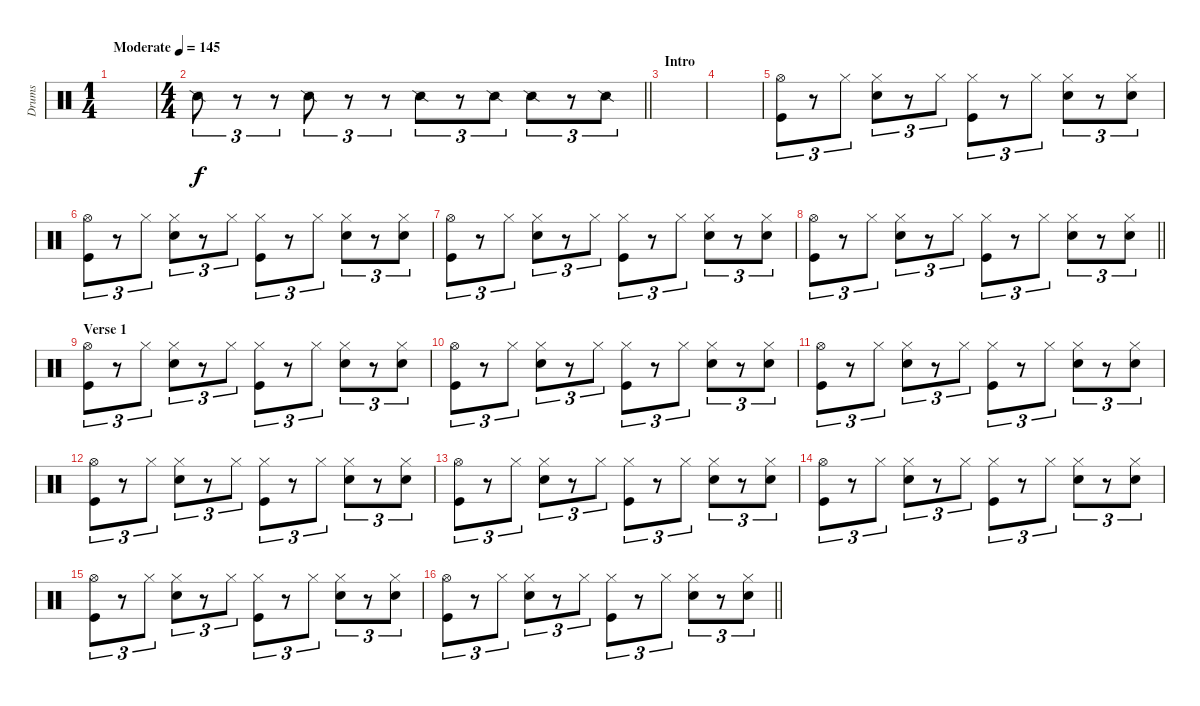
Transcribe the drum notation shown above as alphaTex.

\track ("Drums" "Drums") {instrument percussion}
\staff {score}
\articulation defaults
\ts (1 4)
\tempo (145 "Moderate")
\clef neutral
\ks c
|
\ts (4 4)
\barLineRight lightlight "Snare (side stick) 2".8{tu (3 2)}
r.8{tu (3 2)} r.8{tu (3 2)} "Snare (side stick) 2".8{tu (3 2)} r.8{tu (3 2)} r.8{tu (3 2)} "Snare (side stick) 2".8{tu (3 2)} r.8{tu (3 2)} "Snare (side stick) 2".8{tu (3 2)} "Snare (side stick) 2".8{tu (3 2)} r.8{tu (3 2)} "Snare (side stick) 2".8{tu (3 2)} |
\section ("" "Intro")
|
|
("Hi-Hat (open)" "Kick (hit)").8{tu (3 2)} r.8{tu (3 2)} "Hi-Hat (closed)".8{tu (3 2)} ("Hi-Hat (closed)" "Snare (hit) 2").8{tu (3 2)} r.8{tu (3 2)} "Hi-Hat (closed)".8{tu (3 2)} ("Hi-Hat (closed)" "Kick (hit)").8{tu (3 2)} r.8{tu (3 2)} "Hi-Hat (closed)".8{tu (3 2)} ("Hi-Hat (closed)" "Snare (hit) 2").8{tu (3 2)} r.8{tu (3 2)} ("Hi-Hat (closed)" "Snare (hit) 2").8{tu (3 2)} |
("Hi-Hat (open)" "Kick (hit)").8{tu (3 2)} r.8{tu (3 2)} "Hi-Hat (closed)".8{tu (3 2)} ("Hi-Hat (closed)" "Snare (hit) 2").8{tu (3 2)} r.8{tu (3 2)} "Hi-Hat (closed)".8{tu (3 2)} ("Hi-Hat (closed)" "Kick (hit)").8{tu (3 2)} r.8{tu (3 2)} "Hi-Hat (closed)".8{tu (3 2)} ("Hi-Hat (closed)" "Snare (hit) 2").8{tu (3 2)} r.8{tu (3 2)} ("Hi-Hat (closed)" "Snare (hit) 2").8{tu (3 2)} |
("Hi-Hat (open)" "Kick (hit)").8{tu (3 2)} r.8{tu (3 2)} "Hi-Hat (closed)".8{tu (3 2)} ("Hi-Hat (closed)" "Snare (hit) 2").8{tu (3 2)} r.8{tu (3 2)} "Hi-Hat (closed)".8{tu (3 2)} ("Hi-Hat (closed)" "Kick (hit)").8{tu (3 2)} r.8{tu (3 2)} "Hi-Hat (closed)".8{tu (3 2)} ("Hi-Hat (closed)" "Snare (hit) 2").8{tu (3 2)} r.8{tu (3 2)} ("Hi-Hat (closed)" "Snare (hit) 2").8{tu (3 2)} |
\barLineRight lightlight
("Hi-Hat (open)" "Kick (hit)").8{tu (3 2)} r.8{tu (3 2)} "Hi-Hat (closed)".8{tu (3 2)} ("Hi-Hat (closed)" "Snare (hit) 2").8{tu (3 2)} r.8{tu (3 2)} "Hi-Hat (closed)".8{tu (3 2)} ("Hi-Hat (closed)" "Kick (hit)").8{tu (3 2)} r.8{tu (3 2)} "Hi-Hat (closed)".8{tu (3 2)} ("Hi-Hat (closed)" "Snare (hit) 2").8{tu (3 2)} r.8{tu (3 2)} ("Hi-Hat (closed)" "Snare (hit) 2").8{tu (3 2)} |
\section ("" "Verse 1")
("Hi-Hat (open)" "Kick (hit)").8{tu (3 2)} r.8{tu (3 2)} "Hi-Hat (closed)".8{tu (3 2)} ("Hi-Hat (closed)" "Snare (hit) 2").8{tu (3 2)} r.8{tu (3 2)} "Hi-Hat (closed)".8{tu (3 2)} ("Hi-Hat (closed)" "Kick (hit)").8{tu (3 2)} r.8{tu (3 2)} "Hi-Hat (closed)".8{tu (3 2)} ("Hi-Hat (closed)" "Snare (hit) 2").8{tu (3 2)} r.8{tu (3 2)} ("Hi-Hat (closed)" "Snare (hit) 2").8{tu (3 2)} |
("Hi-Hat (open)" "Kick (hit)").8{tu (3 2)} r.8{tu (3 2)} "Hi-Hat (closed)".8{tu (3 2)} ("Hi-Hat (closed)" "Snare (hit) 2").8{tu (3 2)} r.8{tu (3 2)} "Hi-Hat (closed)".8{tu (3 2)} ("Hi-Hat (closed)" "Kick (hit)").8{tu (3 2)} r.8{tu (3 2)} "Hi-Hat (closed)".8{tu (3 2)} ("Hi-Hat (closed)" "Snare (hit) 2").8{tu (3 2)} r.8{tu (3 2)} ("Hi-Hat (closed)" "Snare (hit) 2").8{tu (3 2)} |
("Hi-Hat (open)" "Kick (hit)").8{tu (3 2)} r.8{tu (3 2)} "Hi-Hat (closed)".8{tu (3 2)} ("Hi-Hat (closed)" "Snare (hit) 2").8{tu (3 2)} r.8{tu (3 2)} "Hi-Hat (closed)".8{tu (3 2)} ("Hi-Hat (closed)" "Kick (hit)").8{tu (3 2)} r.8{tu (3 2)} "Hi-Hat (closed)".8{tu (3 2)} ("Hi-Hat (closed)" "Snare (hit) 2").8{tu (3 2)} r.8{tu (3 2)} ("Hi-Hat (closed)" "Snare (hit) 2").8{tu (3 2)} |
("Hi-Hat (open)" "Kick (hit)").8{tu (3 2)} r.8{tu (3 2)} "Hi-Hat (closed)".8{tu (3 2)} ("Hi-Hat (closed)" "Snare (hit) 2").8{tu (3 2)} r.8{tu (3 2)} "Hi-Hat (closed)".8{tu (3 2)} ("Hi-Hat (closed)" "Kick (hit)").8{tu (3 2)} r.8{tu (3 2)} "Hi-Hat (closed)".8{tu (3 2)} ("Hi-Hat (closed)" "Snare (hit) 2").8{tu (3 2)} r.8{tu (3 2)} ("Hi-Hat (closed)" "Snare (hit) 2").8{tu (3 2)} |
("Hi-Hat (open)" "Kick (hit)").8{tu (3 2)} r.8{tu (3 2)} "Hi-Hat (closed)".8{tu (3 2)} ("Hi-Hat (closed)" "Snare (hit) 2").8{tu (3 2)} r.8{tu (3 2)} "Hi-Hat (closed)".8{tu (3 2)} ("Hi-Hat (closed)" "Kick (hit)").8{tu (3 2)} r.8{tu (3 2)} "Hi-Hat (closed)".8{tu (3 2)} ("Hi-Hat (closed)" "Snare (hit) 2").8{tu (3 2)} r.8{tu (3 2)} ("Hi-Hat (closed)" "Snare (hit) 2").8{tu (3 2)} |
("Hi-Hat (open)" "Kick (hit)").8{tu (3 2)} r.8{tu (3 2)} "Hi-Hat (closed)".8{tu (3 2)} ("Hi-Hat (closed)" "Snare (hit) 2").8{tu (3 2)} r.8{tu (3 2)} "Hi-Hat (closed)".8{tu (3 2)} ("Hi-Hat (closed)" "Kick (hit)").8{tu (3 2)} r.8{tu (3 2)} "Hi-Hat (closed)".8{tu (3 2)} ("Hi-Hat (closed)" "Snare (hit) 2").8{tu (3 2)} r.8{tu (3 2)} ("Hi-Hat (closed)" "Snare (hit) 2").8{tu (3 2)} |
("Hi-Hat (open)" "Kick (hit)").8{tu (3 2)} r.8{tu (3 2)} "Hi-Hat (closed)".8{tu (3 2)} ("Hi-Hat (closed)" "Snare (hit) 2").8{tu (3 2)} r.8{tu (3 2)} "Hi-Hat (closed)".8{tu (3 2)} ("Hi-Hat (closed)" "Kick (hit)").8{tu (3 2)} r.8{tu (3 2)} "Hi-Hat (closed)".8{tu (3 2)} ("Hi-Hat (closed)" "Snare (hit) 2").8{tu (3 2)} r.8{tu (3 2)} ("Hi-Hat (closed)" "Snare (hit) 2").8{tu (3 2)} |
\barLineRight lightlight
("Hi-Hat (open)" "Kick (hit)").8{tu (3 2)} r.8{tu (3 2)} "Hi-Hat (closed)".8{tu (3 2)} ("Hi-Hat (closed)" "Snare (hit) 2").8{tu (3 2)} r.8{tu (3 2)} "Hi-Hat (closed)".8{tu (3 2)} ("Hi-Hat (closed)" "Kick (hit)").8{tu (3 2)} r.8{tu (3 2)} "Hi-Hat (closed)".8{tu (3 2)} ("Hi-Hat (closed)" "Snare (hit) 2").8{tu (3 2)} r.8{tu (3 2)} ("Hi-Hat (closed)" "Snare (hit) 2").8{tu (3 2)}
